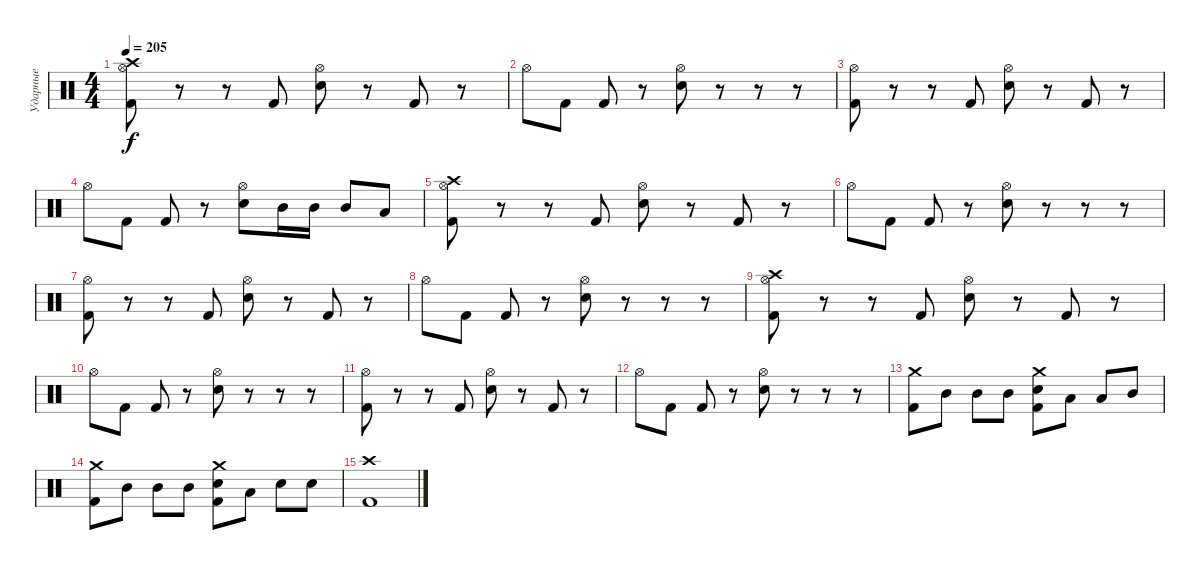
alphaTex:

\track ("Ударные" "Ударные") {instrument percussion}
\staff {score}
\articulation defaults
\ts (4 4)
\tempo 205
\clef neutral
\ks c
("Hi-Hat (open)" "Crash high (hit)" "Kick (hit) 2").8{dy f} r.8 r.8 "Kick (hit) 2".8 ("Hi-Hat (open)" "Snare (hit) 2").8 r.8 "Kick (hit) 2".8 r.8 |
"Hi-Hat (open)".8 "Kick (hit) 2".8 "Kick (hit) 2".8 r.8 ("Hi-Hat (open)" "Snare (hit) 2").8 r.8 r.8 r.8 |
("Hi-Hat (open)" "Kick (hit) 2").8 r.8 r.8 "Kick (hit) 2".8 ("Hi-Hat (open)" "Snare (hit) 2").8 r.8 "Kick (hit) 2".8 r.8 |
"Hi-Hat (open)".8 "Kick (hit) 2".8 "Kick (hit) 2".8 r.8 ("Hi-Hat (open)" "Snare (hit) 2").8 "Mid Tom (hit)".16 "Mid Tom (hit)".16 "Mid Tom (hit)".8 "Low Tom (hit)".8 |
("Hi-Hat (open)" "Crash high (hit)" "Kick (hit) 2").8 r.8 r.8 "Kick (hit) 2".8 ("Hi-Hat (open)" "Snare (hit) 2").8 r.8 "Kick (hit) 2".8 r.8 |
"Hi-Hat (open)".8 "Kick (hit) 2".8 "Kick (hit) 2".8 r.8 ("Hi-Hat (open)" "Snare (hit) 2").8 r.8 r.8 r.8 |
("Hi-Hat (open)" "Kick (hit) 2").8 r.8 r.8 "Kick (hit) 2".8 ("Hi-Hat (open)" "Snare (hit) 2").8 r.8 "Kick (hit) 2".8 r.8 |
"Hi-Hat (open)".8 "Kick (hit) 2".8 "Kick (hit) 2".8 r.8 ("Hi-Hat (open)" "Snare (hit) 2").8 r.8 r.8 r.8 |
("Hi-Hat (open)" "Crash high (hit)" "Kick (hit) 2").8 r.8 r.8 "Kick (hit) 2".8 ("Hi-Hat (open)" "Snare (hit) 2").8 r.8 "Kick (hit) 2".8 r.8 |
"Hi-Hat (open)".8 "Kick (hit) 2".8 "Kick (hit) 2".8 r.8 ("Hi-Hat (open)" "Snare (hit) 2").8 r.8 r.8 r.8 |
("Hi-Hat (open)" "Kick (hit) 2").8 r.8 r.8 "Kick (hit) 2".8 ("Hi-Hat (open)" "Snare (hit) 2").8 r.8 "Kick (hit) 2".8 r.8 |
"Hi-Hat (open)".8 "Kick (hit) 2".8 "Kick (hit) 2".8 r.8 ("Hi-Hat (open)" "Snare (hit) 2").8 r.8 r.8 r.8 |
("Crash medium (hit)" "Kick (hit) 2").8 "Mid Tom (hit)".8 "Mid Tom (hit)".8 "Mid Tom (hit)".8 ("Snare (hit) 2" "Crash medium (hit)" "Kick (hit) 2").8 "Low Tom (hit)".8 "Low Tom (hit)".8 "Mid Tom (hit)".8 |
("Crash medium (hit)" "Kick (hit) 2").8 "Mid Tom (hit)".8 "Mid Tom (hit)".8 "Mid Tom (hit)".8 ("Snare (hit) 2" "Crash medium (hit)" "Kick (hit) 2").8 "Low Tom (hit)".8 "Snare (hit) 2".8 "Snare (hit) 2".8 |
("Crash high (hit)" "Kick (hit) 2").1
